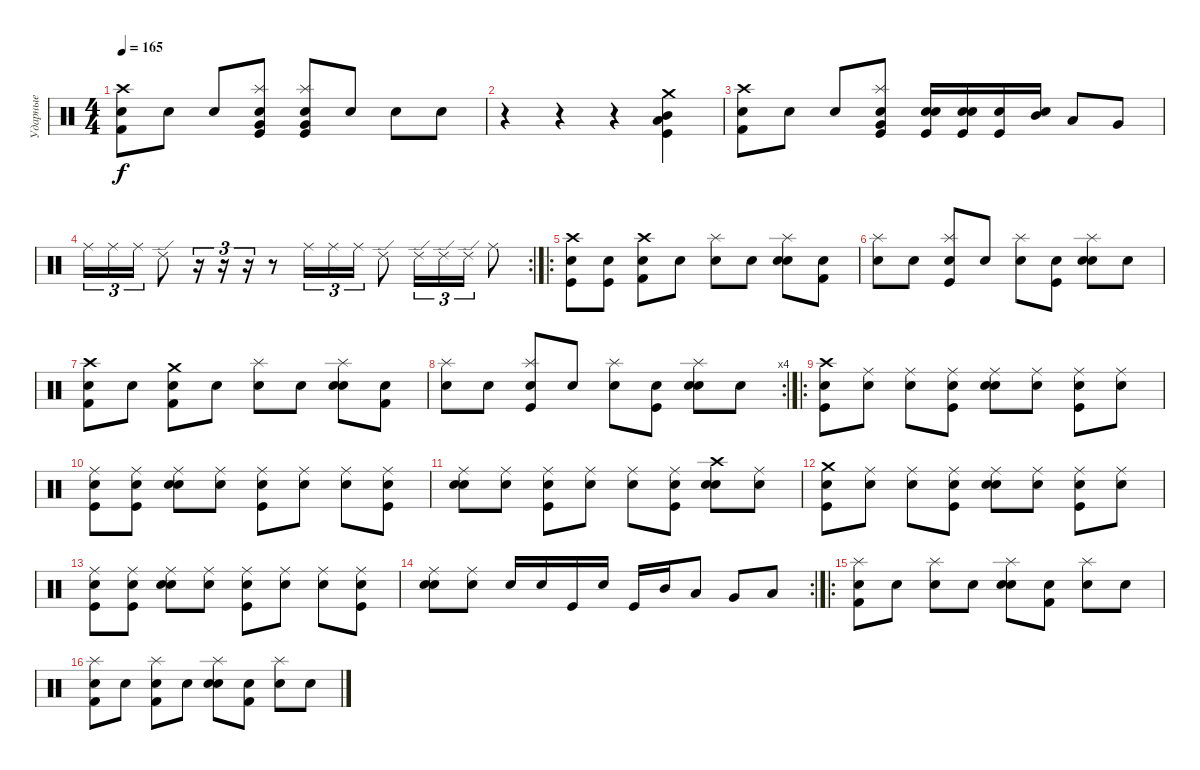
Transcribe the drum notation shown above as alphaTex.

\track ("Ударные" "Ударные") {instrument percussion}
\staff {score}
\articulation defaults
\ts (4 4)
\tempo 165
\clef neutral
\ks c
("Crash high (hit)" "Kick (hit) 2" "Snare (hit)").8{dy f} "Snare (hit)".8 "Snare (hit)".8 ("Splash (hit)" "Very Low Tom (hit)" "Kick (hit)" "Snare (hit)").8 ("Splash (hit)" "Very Low Tom (hit)" "Kick (hit)" "Snare (hit)").8 "Snare (hit)".8 "Snare (hit)".8 "Snare (hit)".8 |
r.4 r.4 r.4 ("Low Tom (hit)" "Mid Tom (hit)" "Crash medium (hit)" "Kick (hit)").4 |
("Crash high (hit)" "Kick (hit) 2" "Snare (hit)").8 "Snare (hit)".8 "Snare (hit)".8 ("Splash (hit)" "Very Low Tom (hit)" "Kick (hit)" "Snare (hit)").8 ("Snare (hit) 2" "Kick (hit)" "Snare (hit)").16 ("Snare (hit) 2" "Kick (hit)" "Snare (hit)").16 ("Kick (hit)" "Snare (hit)").16 ("Mid Tom (hit)" "Snare (hit)").16 "Low Tom (hit)".8 "Very Low Tom (hit)".8 |
\rc 2 "Ride (middle)".16{tu (3 2)} "Ride (middle)".16{tu (3 2)} "Ride (middle)".16{tu (3 2)} "Ride (edge) 2".8
r.16{tu (3 2)} r.16{tu (3 2)} r.16{tu (3 2)} r.8 "Ride (middle)".16{tu (3 2)} "Ride (middle)".16{tu (3 2)} "Ride (middle)".16{tu (3 2)} "Ride (edge) 2".8 "Ride (edge) 2".16{tu (3 2)} "Ride (edge) 2".16{tu (3 2)} "Ride (edge) 2".16{tu (3 2)} "Ride (middle)".8 |
\ro
("Crash high (hit)" "Kick (hit)" "Snare (hit)").8 ("Kick (hit)" "Snare (hit)").8 ("Crash high (hit)" "Kick (hit) 2" "Snare (hit)").8 "Snare (hit)".8 ("Splash (hit)" "Snare (hit)").8 "Snare (hit)".8 ("Snare (hit) 2" "Splash (hit)" "Snare (hit)").8 ("Kick (hit) 2" "Snare (hit)").8 |
("Splash (hit)" "Snare (hit)").8 "Snare (hit)".8 ("Splash (hit)" "Kick (hit)" "Snare (hit)").8 "Snare (hit)".8 ("Splash (hit)" "Snare (hit)").8 ("Kick (hit)" "Snare (hit)").8 ("Snare (hit) 2" "Splash (hit)" "Snare (hit)").8 "Snare (hit)".8 |
("Crash high (hit)" "Kick (hit) 2" "Snare (hit)").8 "Snare (hit)".8 ("Crash medium (hit)" "Kick (hit) 2" "Snare (hit)").8 "Snare (hit)".8 ("Splash (hit)" "Snare (hit)").8 "Snare (hit)".8 ("Snare (hit) 2" "Splash (hit)" "Snare (hit)").8 ("Kick (hit) 2" "Snare (hit)").8 |
\rc 4
("Splash (hit)" "Snare (hit)").8 "Snare (hit)".8 ("Splash (hit)" "Kick (hit)" "Snare (hit)").8 "Snare (hit)".8 ("Splash (hit)" "Snare (hit)").8 ("Kick (hit)" "Snare (hit)").8 ("Snare (hit) 2" "Splash (hit)" "Snare (hit)").8 "Snare (hit)".8 |
\ro
("Crash high (hit)" "Kick (hit)" "Snare (hit)").8 ("Ride (middle)" "Snare (hit)").8 ("Ride (middle)" "Snare (hit)").8 ("Ride (middle)" "Kick (hit)" "Snare (hit)").8 ("Snare (hit) 2" "Ride (middle)" "Snare (hit)").8 ("Ride (middle)" "Snare (hit)").8 ("Ride (middle)" "Kick (hit)" "Snare (hit)").8 ("Ride (middle)" "Snare (hit)").8 |
("Ride (middle)" "Kick (hit)" "Snare (hit)").8 ("Ride (middle)" "Kick (hit)" "Snare (hit)").8 ("Snare (hit) 2" "Ride (middle)" "Snare (hit)").8 ("Ride (middle)" "Snare (hit)").8 ("Ride (middle)" "Kick (hit)" "Snare (hit)").8 ("Ride (middle)" "Snare (hit)").8 ("Ride (middle)" "Snare (hit)").8 ("Ride (middle)" "Kick (hit)" "Snare (hit)").8 |
("Snare (hit) 2" "Ride (middle)" "Snare (hit)").8 ("Ride (middle)" "Snare (hit)").8 ("Ride (middle)" "Kick (hit)" "Snare (hit)").8 ("Ride (middle)" "Snare (hit)").8 ("Ride (middle)" "Snare (hit)").8 ("Ride (middle)" "Kick (hit)" "Snare (hit)").8 ("Snare (hit) 2" "Crash high (hit)" "Snare (hit)").8 ("Ride (middle)" "Snare (hit)").8 |
("Crash medium (hit)" "Kick (hit)" "Snare (hit)").8 ("Ride (middle)" "Snare (hit)").8 ("Ride (middle)" "Snare (hit)").8 ("Ride (middle)" "Kick (hit)" "Snare (hit)").8 ("Snare (hit) 2" "Ride (middle)" "Snare (hit)").8 ("Ride (middle)" "Snare (hit)").8 ("Ride (middle)" "Kick (hit)" "Snare (hit)").8 ("Ride (middle)" "Snare (hit)").8 |
("Ride (middle)" "Kick (hit)" "Snare (hit)").8 ("Ride (middle)" "Kick (hit)" "Snare (hit)").8 ("Snare (hit) 2" "Ride (middle)" "Snare (hit)").8 ("Ride (middle)" "Snare (hit)").8 ("Ride (middle)" "Kick (hit)" "Snare (hit)").8 ("Ride (middle)" "Snare (hit)").8 ("Ride (middle)" "Snare (hit)").8 ("Ride (middle)" "Kick (hit)" "Snare (hit)").8 |
\rc 2
("Snare (hit) 2" "Ride (middle)" "Snare (hit)").8 ("Ride (middle)" "Snare (hit)").8 "Snare (hit) 2".16 "Snare (hit) 2".16 "Kick (hit)".16 "Snare (hit) 2".16 "Kick (hit)".16 "Mid Tom (hit)".16 "Low Tom (hit)".8 "Very Low Tom (hit)".8 "Low Floor Tom (hit)".8 |
\ro
("Splash (hit)" "Kick (hit) 2" "Snare (hit)").8 "Snare (hit)".8 ("Splash (hit)" "Snare (hit)").8 "Snare (hit)".8 ("Snare (hit) 2" "Splash (hit)" "Snare (hit)").8 ("Kick (hit) 2" "Snare (hit)").8 ("Splash (hit)" "Snare (hit)").8 "Snare (hit)".8 |
("Splash (hit)" "Kick (hit) 2" "Snare (hit)").8 "Snare (hit)".8 ("Splash (hit)" "Kick (hit) 2" "Snare (hit)").8 "Snare (hit)".8 ("Snare (hit) 2" "Splash (hit)" "Snare (hit)").8 ("Kick (hit) 2" "Snare (hit)").8 ("Splash (hit)" "Snare (hit)").8 "Snare (hit)".8
